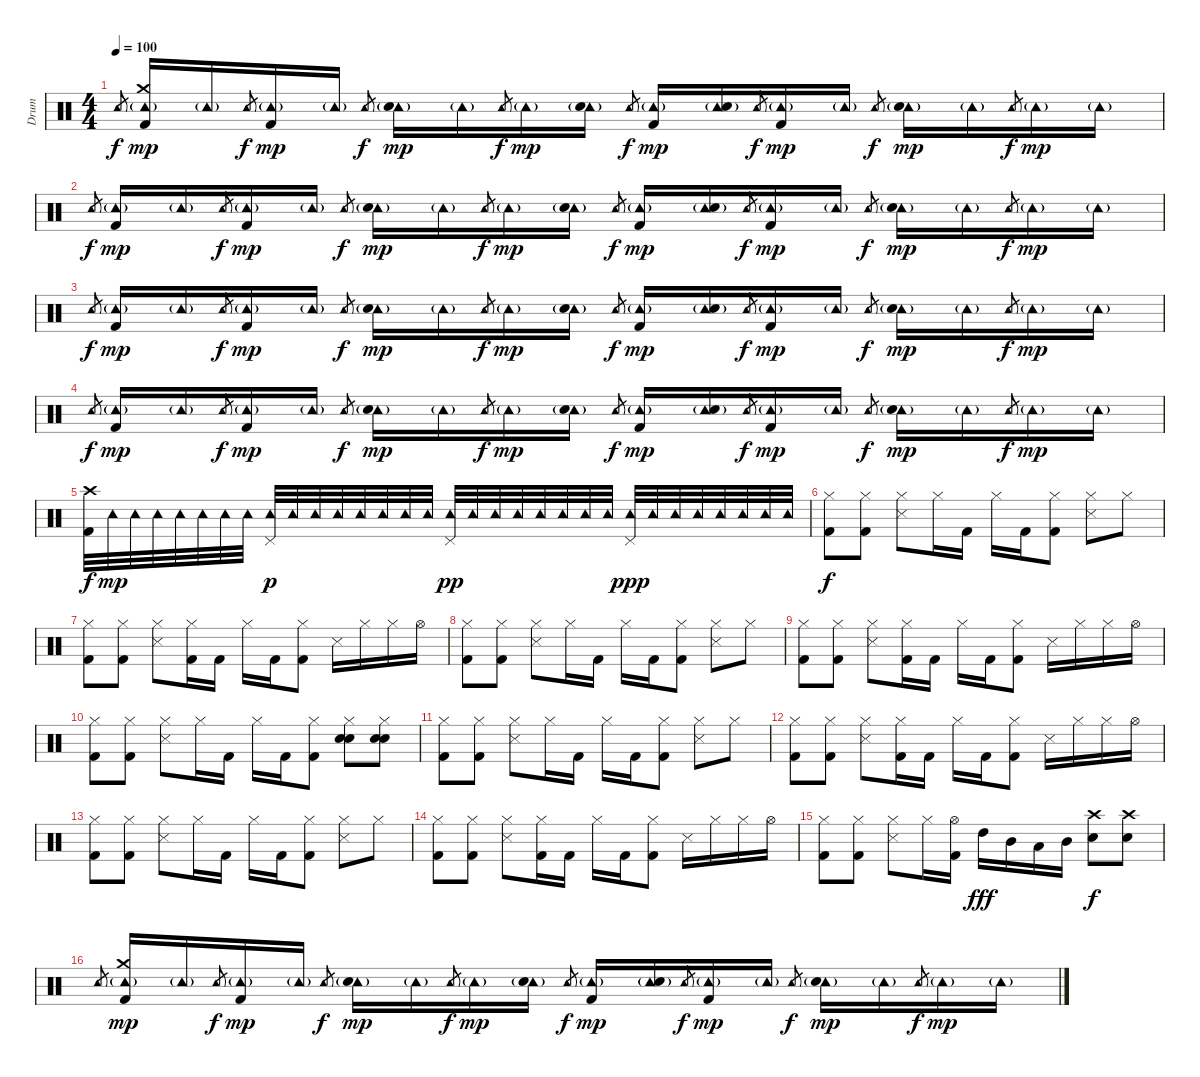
\track ("Drum" "Drum") {instrument percussion}
\staff {score}
\articulation defaults
\ts (4 4)
\tempo 100
\clef neutral
\ks c "Tambourine (hit)".8{gr dy f}
("Crash medium (hit)" "Tambourine (hit)"{g} "Kick (hit) 2").16{dy mp} "Tambourine (hit)"{g}.16 "Tambourine (hit)".8{gr dy f} ("Tambourine (hit)"{g} "Kick (hit) 2").16{dy mp} "Tambourine (hit)"{g}.16 "Tambourine (hit)".8{gr dy f} ("Tambourine (hit)"{g} "Electric Snare (hit)").16{dy mp} "Tambourine (hit)"{g}.16 "Tambourine (hit)".8{gr dy f} "Tambourine (hit)"{g}.16{dy mp} ("Tambourine (hit)"{g} "Electric Snare (hit)").16 "Tambourine (hit)".8{gr dy f} ("Tambourine (hit)"{g} "Kick (hit) 2").16{dy mp} ("Tambourine (hit)"{g} "Electric Snare (hit)").16 "Tambourine (hit)".8{gr dy f} ("Tambourine (hit)"{g} "Kick (hit) 2").16{dy mp} "Tambourine (hit)"{g}.16 "Tambourine (hit)".8{gr dy f} ("Tambourine (hit)"{g} "Electric Snare (hit)").16{dy mp} "Tambourine (hit)"{g}.16 "Tambourine (hit)".8{gr dy f} "Tambourine (hit)"{g}.16{dy mp} "Tambourine (hit)"{g}.16 |
"Tambourine (hit)".8{gr dy f} ("Tambourine (hit)"{g} "Kick (hit) 2").16{dy mp} "Tambourine (hit)"{g}.16 "Tambourine (hit)".8{gr dy f} ("Tambourine (hit)"{g} "Kick (hit) 2").16{dy mp} "Tambourine (hit)"{g}.16 "Tambourine (hit)".8{gr dy f} ("Tambourine (hit)"{g} "Electric Snare (hit)").16{dy mp} "Tambourine (hit)"{g}.16 "Tambourine (hit)".8{gr dy f} "Tambourine (hit)"{g}.16{dy mp} ("Tambourine (hit)"{g} "Electric Snare (hit)").16 "Tambourine (hit)".8{gr dy f} ("Tambourine (hit)"{g} "Kick (hit) 2").16{dy mp} ("Tambourine (hit)"{g} "Electric Snare (hit)").16 "Tambourine (hit)".8{gr dy f} ("Tambourine (hit)"{g} "Kick (hit) 2").16{dy mp} "Tambourine (hit)"{g}.16 "Tambourine (hit)".8{gr dy f} ("Tambourine (hit)"{g} "Electric Snare (hit)").16{dy mp} "Tambourine (hit)"{g}.16 "Tambourine (hit)".8{gr dy f} "Tambourine (hit)"{g}.16{dy mp} "Tambourine (hit)"{g}.16 |
"Tambourine (hit)".8{gr dy f} ("Tambourine (hit)"{g} "Kick (hit) 2").16{dy mp} "Tambourine (hit)"{g}.16 "Tambourine (hit)".8{gr dy f} ("Tambourine (hit)"{g} "Kick (hit) 2").16{dy mp} "Tambourine (hit)"{g}.16 "Tambourine (hit)".8{gr dy f} ("Tambourine (hit)"{g} "Electric Snare (hit)").16{dy mp} "Tambourine (hit)"{g}.16 "Tambourine (hit)".8{gr dy f} "Tambourine (hit)"{g}.16{dy mp} ("Tambourine (hit)"{g} "Electric Snare (hit)").16 "Tambourine (hit)".8{gr dy f} ("Tambourine (hit)"{g} "Kick (hit) 2").16{dy mp} ("Tambourine (hit)"{g} "Electric Snare (hit)").16 "Tambourine (hit)".8{gr dy f} ("Tambourine (hit)"{g} "Kick (hit) 2").16{dy mp} "Tambourine (hit)"{g}.16 "Tambourine (hit)".8{gr dy f} ("Tambourine (hit)"{g} "Electric Snare (hit)").16{dy mp} "Tambourine (hit)"{g}.16 "Tambourine (hit)".8{gr dy f} "Tambourine (hit)"{g}.16{dy mp} "Tambourine (hit)"{g}.16 |
"Tambourine (hit)".8{gr dy f} ("Tambourine (hit)"{g} "Kick (hit) 2").16{dy mp} "Tambourine (hit)"{g}.16 "Tambourine (hit)".8{gr dy f} ("Tambourine (hit)"{g} "Kick (hit) 2").16{dy mp} "Tambourine (hit)"{g}.16 "Tambourine (hit)".8{gr dy f} ("Tambourine (hit)"{g} "Electric Snare (hit)").16{dy mp} "Tambourine (hit)"{g}.16 "Tambourine (hit)".8{gr dy f} "Tambourine (hit)"{g}.16{dy mp} ("Tambourine (hit)"{g} "Electric Snare (hit)").16 "Tambourine (hit)".8{gr dy f} ("Tambourine (hit)"{g} "Kick (hit) 2").16{dy mp} ("Tambourine (hit)"{g} "Electric Snare (hit)").16 "Tambourine (hit)".8{gr dy f} ("Tambourine (hit)"{g} "Kick (hit) 2").16{dy mp} "Tambourine (hit)"{g}.16 "Tambourine (hit)".8{gr dy f} ("Tambourine (hit)"{g} "Electric Snare (hit)").16{dy mp} "Tambourine (hit)"{g}.16 "Tambourine (hit)".8{gr dy f} "Tambourine (hit)"{g}.16{dy mp} "Tambourine (hit)"{g}.16 |
("Crash high (hit)" "Kick (hit) 2").32{dy f} "Tambourine (hit)".32{dy mp} "Tambourine (hit)".32 "Tambourine (hit)".32 "Tambourine (hit)".32 "Tambourine (hit)".32 "Tambourine (hit)".32 "Tambourine (hit)".32 ("Pedal Hi-Hat (hit)" "Tambourine (hit)").32{dy p} "Tambourine (hit)".32 "Tambourine (hit)".32 "Tambourine (hit)".32 "Tambourine (hit)".32 "Tambourine (hit)".32 "Tambourine (hit)".32 "Tambourine (hit)".32 ("Pedal Hi-Hat (hit)" "Tambourine (hit)").32{dy pp} "Tambourine (hit)".32 "Tambourine (hit)".32 "Tambourine (hit)".32 "Tambourine (hit)".32 "Tambourine (hit)".32 "Tambourine (hit)".32 "Tambourine (hit)".32 ("Pedal Hi-Hat (hit)" "Tambourine (hit)").32{dy ppp} "Tambourine (hit)".32 "Tambourine (hit)".32 "Tambourine (hit)".32 "Tambourine (hit)".32 "Tambourine (hit)".32 "Tambourine (hit)".32 "Tambourine (hit)".32 |
("Hi-Hat (closed)" "Kick (hit) 2").8{dy f} ("Hi-Hat (closed)" "Kick (hit) 2").8 ("Hi-Hat (closed)" "Snare (side stick) 3").8 "Hi-Hat (closed)".16 "Kick (hit) 2".16 "Hi-Hat (closed)".16 "Kick (hit) 2".16 ("Hi-Hat (closed)" "Kick (hit) 2").8 ("Hi-Hat (closed)" "Snare (side stick) 3").8 "Hi-Hat (closed)".8 |
("Hi-Hat (closed)" "Kick (hit) 2").8 ("Hi-Hat (closed)" "Kick (hit) 2").8 ("Hi-Hat (closed)" "Snare (side stick) 3").8 ("Hi-Hat (closed)" "Kick (hit) 2").16 "Kick (hit) 2".16 "Hi-Hat (closed)".16 "Kick (hit) 2".16 ("Hi-Hat (closed)" "Kick (hit) 2").8 "Snare (side stick) 3".16 "Hi-Hat (closed)".16 "Hi-Hat (closed)".16 "Hi-Hat (open)".16 |
("Hi-Hat (closed)" "Kick (hit) 2").8 ("Hi-Hat (closed)" "Kick (hit) 2").8 ("Hi-Hat (closed)" "Snare (side stick) 3").8 "Hi-Hat (closed)".16 "Kick (hit) 2".16 "Hi-Hat (closed)".16 "Kick (hit) 2".16 ("Hi-Hat (closed)" "Kick (hit) 2").8 ("Hi-Hat (closed)" "Snare (side stick) 3").8 "Hi-Hat (closed)".8 |
("Hi-Hat (closed)" "Kick (hit) 2").8 ("Hi-Hat (closed)" "Kick (hit) 2").8 ("Hi-Hat (closed)" "Snare (side stick) 3").8 ("Hi-Hat (closed)" "Kick (hit) 2").16 "Kick (hit) 2".16 "Hi-Hat (closed)".16 "Kick (hit) 2".16 ("Hi-Hat (closed)" "Kick (hit) 2").8 "Snare (side stick) 3".16 "Hi-Hat (closed)".16 "Hi-Hat (closed)".16 "Hi-Hat (open)".16 |
("Hi-Hat (closed)" "Kick (hit) 2").8 ("Hi-Hat (closed)" "Kick (hit) 2").8 ("Hi-Hat (closed)" "Snare (side stick) 3").8 "Hi-Hat (closed)".16 "Kick (hit) 2".16 "Hi-Hat (closed)".16 "Kick (hit) 2".16 ("Hi-Hat (closed)" "Kick (hit) 2").8 ("Hi-Hat (closed)" "Electric Snare (hit)" "Electric Snare (hit)").8 ("Hi-Hat (closed)" "Electric Snare (hit)" "Electric Snare (hit)").8 |
("Hi-Hat (closed)" "Kick (hit) 2").8 ("Hi-Hat (closed)" "Kick (hit) 2").8 ("Hi-Hat (closed)" "Snare (side stick) 3").8 "Hi-Hat (closed)".16 "Kick (hit) 2".16 "Hi-Hat (closed)".16 "Kick (hit) 2".16 ("Hi-Hat (closed)" "Kick (hit) 2").8 ("Hi-Hat (closed)" "Snare (side stick) 3").8 "Hi-Hat (closed)".8 |
("Hi-Hat (closed)" "Kick (hit) 2").8 ("Hi-Hat (closed)" "Kick (hit) 2").8 ("Hi-Hat (closed)" "Snare (side stick) 3").8 ("Hi-Hat (closed)" "Kick (hit) 2").16 "Kick (hit) 2".16 "Hi-Hat (closed)".16 "Kick (hit) 2".16 ("Hi-Hat (closed)" "Kick (hit) 2").8 "Snare (side stick) 3".16 "Hi-Hat (closed)".16 "Hi-Hat (closed)".16 "Hi-Hat (open)".16 |
("Hi-Hat (closed)" "Kick (hit) 2").8 ("Hi-Hat (closed)" "Kick (hit) 2").8 ("Hi-Hat (closed)" "Snare (side stick) 3").8 "Hi-Hat (closed)".16 "Kick (hit) 2".16 "Hi-Hat (closed)".16 "Kick (hit) 2".16 ("Hi-Hat (closed)" "Kick (hit) 2").8 ("Hi-Hat (closed)" "Snare (side stick) 3").8 "Hi-Hat (closed)".8 |
("Hi-Hat (closed)" "Kick (hit) 2").8 ("Hi-Hat (closed)" "Kick (hit) 2").8 ("Hi-Hat (closed)" "Snare (side stick) 3").8 ("Hi-Hat (closed)" "Kick (hit) 2").16 "Kick (hit) 2".16 "Hi-Hat (closed)".16 "Kick (hit) 2".16 ("Hi-Hat (closed)" "Kick (hit) 2").8 "Snare (side stick) 3".16 "Hi-Hat (closed)".16 "Hi-Hat (closed)".16 "Hi-Hat (open)".16 |
("Hi-Hat (closed)" "Kick (hit) 2").8 ("Hi-Hat (closed)" "Kick (hit) 2").8 ("Hi-Hat (closed)" "Snare (side stick) 3").8 "Hi-Hat (closed)".16 ("Hi-Hat (open)" "Kick (hit) 2").16 "High Tom (hit)".16{dy fff} "Mid Tom (hit)".16 "Low Tom (hit)".16 "Mid Tom (hit)".16 ("Crash high (hit)" "Electric Snare (hit)").8{dy f} ("Crash high (hit)" "Electric Snare (hit)").8 |
"Tambourine (hit)".8{gr} ("Crash medium (hit)" "Tambourine (hit)"{g} "Kick (hit) 2").16{dy mp} "Tambourine (hit)"{g}.16 "Tambourine (hit)".8{gr dy f} ("Tambourine (hit)"{g} "Kick (hit) 2").16{dy mp} "Tambourine (hit)"{g}.16 "Tambourine (hit)".8{gr dy f} ("Tambourine (hit)"{g} "Electric Snare (hit)").16{dy mp} "Tambourine (hit)"{g}.16 "Tambourine (hit)".8{gr dy f} "Tambourine (hit)"{g}.16{dy mp} ("Tambourine (hit)"{g} "Electric Snare (hit)").16 "Tambourine (hit)".8{gr dy f} ("Tambourine (hit)"{g} "Kick (hit) 2").16{dy mp} ("Tambourine (hit)"{g} "Electric Snare (hit)").16 "Tambourine (hit)".8{gr dy f} ("Tambourine (hit)"{g} "Kick (hit) 2").16{dy mp} "Tambourine (hit)"{g}.16 "Tambourine (hit)".8{gr dy f} ("Tambourine (hit)"{g} "Electric Snare (hit)").16{dy mp} "Tambourine (hit)"{g}.16 "Tambourine (hit)".8{gr dy f} "Tambourine (hit)"{g}.16{dy mp} "Tambourine (hit)"{g}.16
